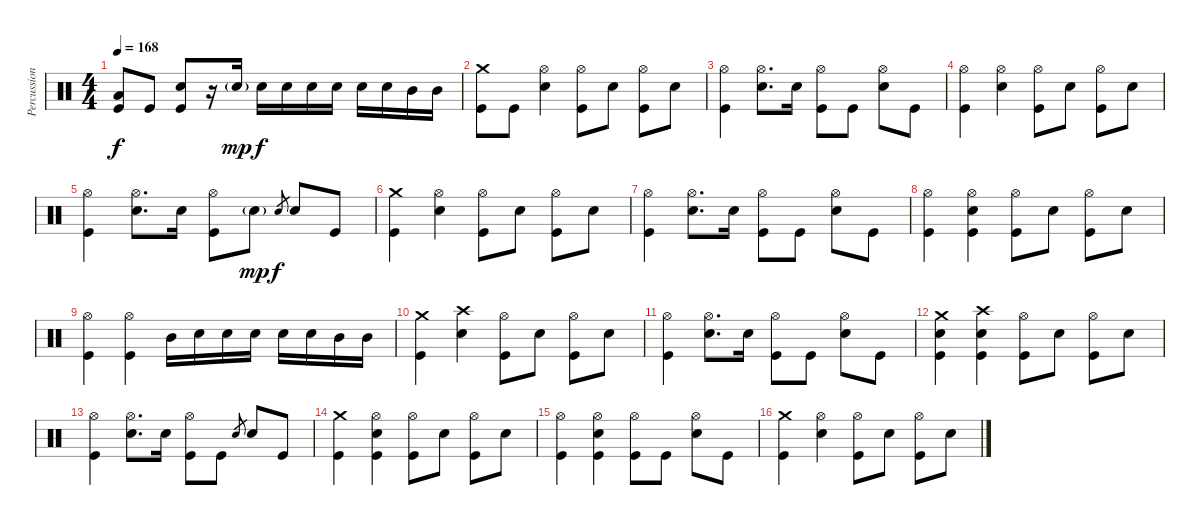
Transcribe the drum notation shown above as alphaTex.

\track ("Percussion" "Percussion") {instrument percussion}
\staff {score}
\articulation defaults
\ts (4 4)
\tempo 168
\clef neutral
\ks c
("Low Tom (hit)" "Kick (hit)").8{dy f} "Kick (hit)".8 ("Electric Snare (hit)" "Kick (hit)").8 r.16 "Electric Snare (hit)"{g}.16{dy mp} "Electric Snare (hit)".16{dy f} "Electric Snare (hit)".16 "Electric Snare (hit)".16 "Electric Snare (hit)".16 "Electric Snare (hit)".16 "Electric Snare (hit)".16 "Mid Tom (hit)".16 "Mid Tom (hit)".16 |
("Crash medium (hit)" "Kick (hit)").8 "Kick (hit)".8 ("Hi-Hat (open)" "Electric Snare (hit)").4 ("Hi-Hat (open)" "Kick (hit)").8 "Electric Snare (hit)".8 ("Hi-Hat (open)" "Kick (hit)").8 "Electric Snare (hit)".8 |
("Hi-Hat (open)" "Kick (hit)").4 ("Hi-Hat (open)" "Electric Snare (hit)").8{d} "Electric Snare (hit)".16 ("Hi-Hat (open)" "Kick (hit)").8 "Kick (hit)".8 ("Hi-Hat (open)" "Electric Snare (hit)").8 "Kick (hit)".8 |
("Hi-Hat (open)" "Kick (hit)").4 ("Hi-Hat (open)" "Electric Snare (hit)").4 ("Hi-Hat (open)" "Kick (hit)").8 "Electric Snare (hit)".8 ("Hi-Hat (open)" "Kick (hit)").8 "Electric Snare (hit)".8 |
("Hi-Hat (open)" "Kick (hit)").4 ("Hi-Hat (open)" "Electric Snare (hit)").8{d} "Electric Snare (hit)".16 ("Hi-Hat (open)" "Kick (hit)").8 "Electric Snare (hit)"{g}.8{dy mp} "Electric Snare (hit)".8{gr dy f} "Electric Snare (hit)".8 "Kick (hit)".8 |
("Crash medium (hit)" "Kick (hit)").4 ("Hi-Hat (open)" "Electric Snare (hit)").4 ("Hi-Hat (open)" "Kick (hit)").8 "Electric Snare (hit)".8 ("Hi-Hat (open)" "Kick (hit)").8 "Electric Snare (hit)".8 |
("Hi-Hat (open)" "Kick (hit)").4 ("Hi-Hat (open)" "Electric Snare (hit)").8{d} "Electric Snare (hit)".16 ("Hi-Hat (open)" "Kick (hit)").8 "Kick (hit)".8 ("Hi-Hat (open)" "Electric Snare (hit)").8 "Kick (hit)".8 |
("Hi-Hat (open)" "Kick (hit)").4 ("Hi-Hat (open)" "Electric Snare (hit)" "Kick (hit)").4 ("Hi-Hat (open)" "Kick (hit)").8 "Electric Snare (hit)".8 ("Hi-Hat (open)" "Kick (hit)").8 "Electric Snare (hit)".8 |
("Hi-Hat (open)" "Kick (hit)").4 ("Hi-Hat (open)" "Kick (hit)").4 "Mid Tom (hit)".16 "Electric Snare (hit)".16 "Electric Snare (hit)".16 "Electric Snare (hit)".16 "Electric Snare (hit)".16 "Electric Snare (hit)".16 "Mid Tom (hit)".16 "Mid Tom (hit)".16 |
("Crash medium (hit)" "Kick (hit)").4 ("Crash high (hit)" "Electric Snare (hit)").4 ("Hi-Hat (open)" "Kick (hit)").8 "Electric Snare (hit)".8 ("Hi-Hat (open)" "Kick (hit)").8 "Electric Snare (hit)".8 |
("Hi-Hat (open)" "Kick (hit)").4 ("Hi-Hat (open)" "Electric Snare (hit)").8{d} "Electric Snare (hit)".16 ("Hi-Hat (open)" "Kick (hit)").8 "Kick (hit)".8 ("Hi-Hat (open)" "Electric Snare (hit)").8 "Kick (hit)".8 |
("Crash medium (hit)" "Electric Snare (hit)" "Kick (hit)").4 ("Crash high (hit)" "Electric Snare (hit)" "Kick (hit)").4 ("Hi-Hat (open)" "Kick (hit)").8 "Electric Snare (hit)".8 ("Hi-Hat (open)" "Kick (hit)").8 "Electric Snare (hit)".8 |
("Hi-Hat (open)" "Kick (hit)").4 ("Hi-Hat (open)" "Electric Snare (hit)").8{d} "Electric Snare (hit)".16 ("Hi-Hat (open)" "Kick (hit)").8 "Kick (hit)".8 "Electric Snare (hit)".8{gr} "Electric Snare (hit)".8 "Kick (hit)".8 |
("Crash medium (hit)" "Kick (hit)").4 ("Hi-Hat (open)" "Electric Snare (hit)" "Kick (hit)").4 ("Hi-Hat (open)" "Kick (hit)").8 "Electric Snare (hit)".8 ("Hi-Hat (open)" "Kick (hit)").8 "Electric Snare (hit)".8 |
("Hi-Hat (open)" "Kick (hit)").4 ("Hi-Hat (open)" "Electric Snare (hit)" "Kick (hit)").4 ("Hi-Hat (open)" "Kick (hit)").8 "Kick (hit)".8 ("Hi-Hat (open)" "Electric Snare (hit)").8 "Kick (hit)".8 |
("Crash medium (hit)" "Kick (hit)").4 ("Hi-Hat (open)" "Electric Snare (hit)").4 ("Hi-Hat (open)" "Kick (hit)").8 "Electric Snare (hit)".8 ("Hi-Hat (open)" "Kick (hit)").8 "Electric Snare (hit)".8
